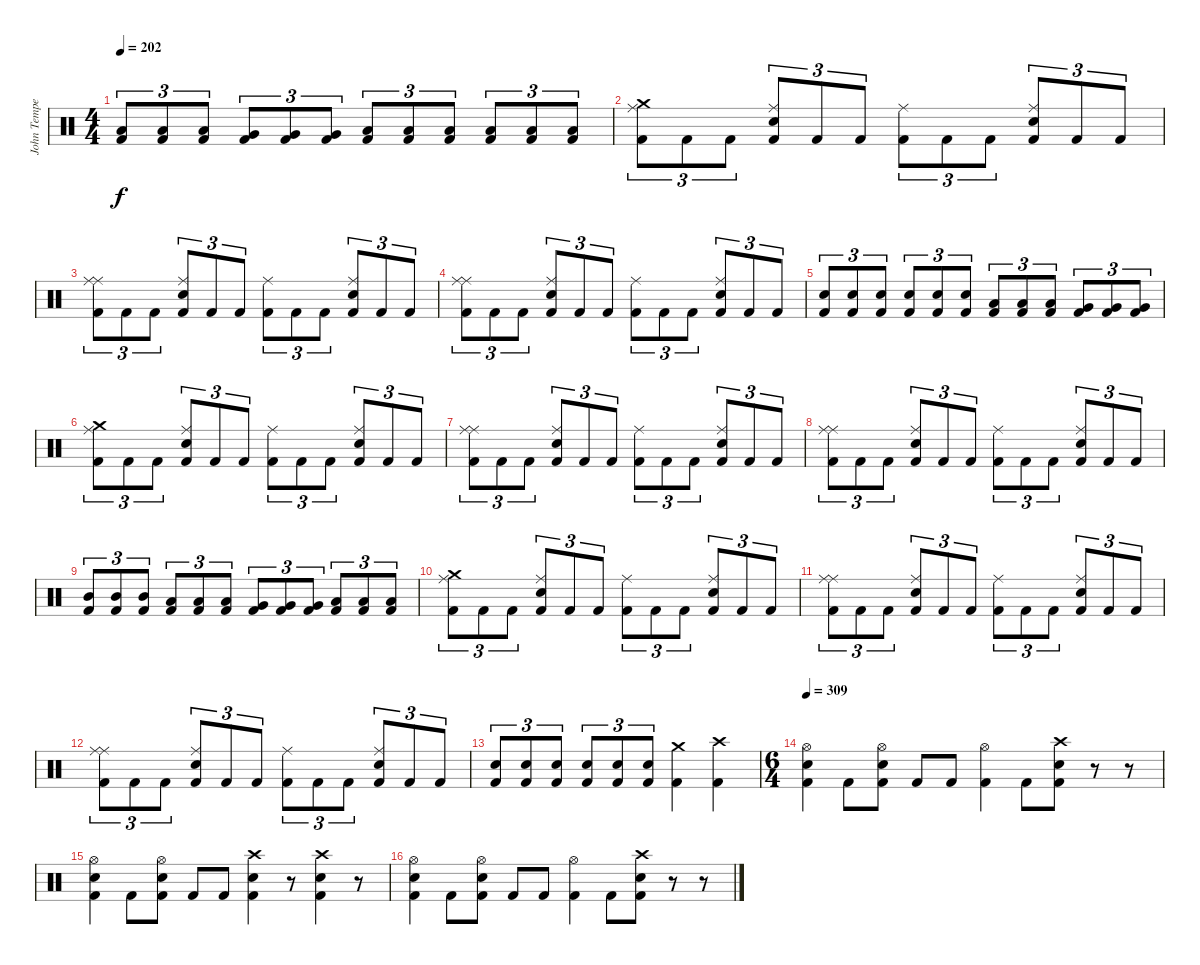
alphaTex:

\track ("John Tempesta" "John Tempe") {instrument percussion}
\staff {score}
\articulation defaults
\ts (4 4)
\tempo 202
\clef neutral
\ks c
("Kick (hit) 2" "Low Tom (hit)").8{tu (3 2) dy f} ("Kick (hit) 2" "Low Tom (hit)").8{tu (3 2)} ("Kick (hit) 2" "Low Tom (hit)").8{tu (3 2)} ("Kick (hit) 2" "Very Low Tom (hit)").8{tu (3 2)} ("Kick (hit) 2" "Very Low Tom (hit)").8{tu (3 2)} ("Kick (hit) 2" "Very Low Tom (hit)").8{tu (3 2)} ("Kick (hit) 2" "Low Floor Tom (hit)").8{tu (3 2)} ("Kick (hit) 2" "Low Floor Tom (hit)").8{tu (3 2)} ("Kick (hit) 2" "Low Floor Tom (hit)").8{tu (3 2)} ("Kick (hit) 2" "Low Floor Tom (hit)").8{tu (3 2)} ("Kick (hit) 2" "Low Floor Tom (hit)").8{tu (3 2)} ("Kick (hit) 2" "Low Floor Tom (hit)").8{tu (3 2)} |
("Kick (hit) 2" "Ride (middle)" "Crash medium (hit)").8{tu (3 2)} "Kick (hit) 2".8{tu (3 2)} "Kick (hit) 2".8{tu (3 2)} ("Kick (hit) 2" "Snare (hit) 2" "Ride (middle)").8{tu (3 2)} "Kick (hit) 2".8{tu (3 2)} "Kick (hit) 2".8{tu (3 2)} ("Kick (hit) 2" "Ride (middle)").8{tu (3 2)} "Kick (hit) 2".8{tu (3 2)} "Kick (hit) 2".8{tu (3 2)} ("Kick (hit) 2" "Snare (hit) 2" "Ride (middle)").8{tu (3 2)} "Kick (hit) 2".8{tu (3 2)} "Kick (hit) 2".8{tu (3 2)} |
("Kick (hit) 2" "Ride (middle)" "Ride (middle)").8{tu (3 2)} "Kick (hit) 2".8{tu (3 2)} "Kick (hit) 2".8{tu (3 2)} ("Kick (hit) 2" "Snare (hit) 2" "Ride (middle)").8{tu (3 2)} "Kick (hit) 2".8{tu (3 2)} "Kick (hit) 2".8{tu (3 2)} ("Kick (hit) 2" "Ride (middle)").8{tu (3 2)} "Kick (hit) 2".8{tu (3 2)} "Kick (hit) 2".8{tu (3 2)} ("Kick (hit) 2" "Snare (hit) 2" "Ride (middle)").8{tu (3 2)} "Kick (hit) 2".8{tu (3 2)} "Kick (hit) 2".8{tu (3 2)} |
("Kick (hit) 2" "Ride (middle)" "Ride (middle)").8{tu (3 2)} "Kick (hit) 2".8{tu (3 2)} "Kick (hit) 2".8{tu (3 2)} ("Kick (hit) 2" "Snare (hit) 2" "Ride (middle)").8{tu (3 2)} "Kick (hit) 2".8{tu (3 2)} "Kick (hit) 2".8{tu (3 2)} ("Kick (hit) 2" "Ride (middle)").8{tu (3 2)} "Kick (hit) 2".8{tu (3 2)} "Kick (hit) 2".8{tu (3 2)} ("Kick (hit) 2" "Snare (hit) 2" "Ride (middle)").8{tu (3 2)} "Kick (hit) 2".8{tu (3 2)} "Kick (hit) 2".8{tu (3 2)} |
("Kick (hit) 2" "Snare (hit) 2").8{tu (3 2)} ("Kick (hit) 2" "Snare (hit) 2").8{tu (3 2)} ("Kick (hit) 2" "Snare (hit) 2").8{tu (3 2)} ("Kick (hit) 2" "Snare (hit) 2").8{tu (3 2)} ("Kick (hit) 2" "Snare (hit) 2").8{tu (3 2)} ("Kick (hit) 2" "Snare (hit) 2").8{tu (3 2)} ("Kick (hit) 2" "Low Tom (hit)").8{tu (3 2)} ("Kick (hit) 2" "Low Tom (hit)").8{tu (3 2)} ("Kick (hit) 2" "Low Tom (hit)").8{tu (3 2)} ("Kick (hit) 2" "Very Low Tom (hit)").8{tu (3 2)} ("Kick (hit) 2" "Very Low Tom (hit)").8{tu (3 2)} ("Kick (hit) 2" "Very Low Tom (hit)").8{tu (3 2)} |
("Kick (hit) 2" "Ride (middle)" "Crash medium (hit)").8{tu (3 2)} "Kick (hit) 2".8{tu (3 2)} "Kick (hit) 2".8{tu (3 2)} ("Kick (hit) 2" "Snare (hit) 2" "Ride (middle)").8{tu (3 2)} "Kick (hit) 2".8{tu (3 2)} "Kick (hit) 2".8{tu (3 2)} ("Kick (hit) 2" "Ride (middle)").8{tu (3 2)} "Kick (hit) 2".8{tu (3 2)} "Kick (hit) 2".8{tu (3 2)} ("Kick (hit) 2" "Snare (hit) 2" "Ride (middle)").8{tu (3 2)} "Kick (hit) 2".8{tu (3 2)} "Kick (hit) 2".8{tu (3 2)} |
("Kick (hit) 2" "Ride (middle)" "Ride (middle)").8{tu (3 2)} "Kick (hit) 2".8{tu (3 2)} "Kick (hit) 2".8{tu (3 2)} ("Kick (hit) 2" "Snare (hit) 2" "Ride (middle)").8{tu (3 2)} "Kick (hit) 2".8{tu (3 2)} "Kick (hit) 2".8{tu (3 2)} ("Kick (hit) 2" "Ride (middle)").8{tu (3 2)} "Kick (hit) 2".8{tu (3 2)} "Kick (hit) 2".8{tu (3 2)} ("Kick (hit) 2" "Snare (hit) 2" "Ride (middle)").8{tu (3 2)} "Kick (hit) 2".8{tu (3 2)} "Kick (hit) 2".8{tu (3 2)} |
("Kick (hit) 2" "Ride (middle)" "Ride (middle)").8{tu (3 2)} "Kick (hit) 2".8{tu (3 2)} "Kick (hit) 2".8{tu (3 2)} ("Kick (hit) 2" "Snare (hit) 2" "Ride (middle)").8{tu (3 2)} "Kick (hit) 2".8{tu (3 2)} "Kick (hit) 2".8{tu (3 2)} ("Kick (hit) 2" "Ride (middle)").8{tu (3 2)} "Kick (hit) 2".8{tu (3 2)} "Kick (hit) 2".8{tu (3 2)} ("Kick (hit) 2" "Snare (hit) 2" "Ride (middle)").8{tu (3 2)} "Kick (hit) 2".8{tu (3 2)} "Kick (hit) 2".8{tu (3 2)} |
("Kick (hit) 2" "Mid Tom (hit)").8{tu (3 2)} ("Kick (hit) 2" "Mid Tom (hit)").8{tu (3 2)} ("Kick (hit) 2" "Mid Tom (hit)").8{tu (3 2)} ("Kick (hit) 2" "Low Tom (hit)").8{tu (3 2)} ("Kick (hit) 2" "Low Tom (hit)").8{tu (3 2)} ("Kick (hit) 2" "Low Tom (hit)").8{tu (3 2)} ("Kick (hit) 2" "Very Low Tom (hit)").8{tu (3 2)} ("Kick (hit) 2" "Very Low Tom (hit)").8{tu (3 2)} ("Kick (hit) 2" "Very Low Tom (hit)").8{tu (3 2)} ("Kick (hit) 2" "Low Floor Tom (hit)").8{tu (3 2)} ("Kick (hit) 2" "Low Floor Tom (hit)").8{tu (3 2)} ("Kick (hit) 2" "Low Floor Tom (hit)").8{tu (3 2)} |
("Kick (hit) 2" "Ride (middle)" "Crash medium (hit)").8{tu (3 2)} "Kick (hit) 2".8{tu (3 2)} "Kick (hit) 2".8{tu (3 2)} ("Kick (hit) 2" "Snare (hit) 2" "Ride (middle)").8{tu (3 2)} "Kick (hit) 2".8{tu (3 2)} "Kick (hit) 2".8{tu (3 2)} ("Kick (hit) 2" "Ride (middle)").8{tu (3 2)} "Kick (hit) 2".8{tu (3 2)} "Kick (hit) 2".8{tu (3 2)} ("Kick (hit) 2" "Snare (hit) 2" "Ride (middle)").8{tu (3 2)} "Kick (hit) 2".8{tu (3 2)} "Kick (hit) 2".8{tu (3 2)} |
("Kick (hit) 2" "Ride (middle)" "Ride (middle)").8{tu (3 2)} "Kick (hit) 2".8{tu (3 2)} "Kick (hit) 2".8{tu (3 2)} ("Kick (hit) 2" "Snare (hit) 2" "Ride (middle)").8{tu (3 2)} "Kick (hit) 2".8{tu (3 2)} "Kick (hit) 2".8{tu (3 2)} ("Kick (hit) 2" "Ride (middle)").8{tu (3 2)} "Kick (hit) 2".8{tu (3 2)} "Kick (hit) 2".8{tu (3 2)} ("Kick (hit) 2" "Snare (hit) 2" "Ride (middle)").8{tu (3 2)} "Kick (hit) 2".8{tu (3 2)} "Kick (hit) 2".8{tu (3 2)} |
("Kick (hit) 2" "Ride (middle)" "Ride (middle)").8{tu (3 2)} "Kick (hit) 2".8{tu (3 2)} "Kick (hit) 2".8{tu (3 2)} ("Kick (hit) 2" "Snare (hit) 2" "Ride (middle)").8{tu (3 2)} "Kick (hit) 2".8{tu (3 2)} "Kick (hit) 2".8{tu (3 2)} ("Kick (hit) 2" "Ride (middle)").8{tu (3 2)} "Kick (hit) 2".8{tu (3 2)} "Kick (hit) 2".8{tu (3 2)} ("Kick (hit) 2" "Snare (hit) 2" "Ride (middle)").8{tu (3 2)} "Kick (hit) 2".8{tu (3 2)} "Kick (hit) 2".8{tu (3 2)} |
("Kick (hit) 2" "Snare (hit) 2").8{tu (3 2)} ("Kick (hit) 2" "Snare (hit) 2").8{tu (3 2)} ("Kick (hit) 2" "Snare (hit) 2").8{tu (3 2)} ("Kick (hit) 2" "Snare (hit) 2").8{tu (3 2)} ("Kick (hit) 2" "Snare (hit) 2").8{tu (3 2)} ("Kick (hit) 2" "Snare (hit) 2").8{tu (3 2)} ("Kick (hit) 2" "Crash medium (hit)").4 ("Kick (hit) 2" "Crash high (hit)").4 |
\ts (6 4)
\tempo 309
("Kick (hit) 2" "Snare (hit) 2" "Hi-Hat (open)").4 "Kick (hit) 2".8 ("Kick (hit) 2" "Snare (hit) 2" "Hi-Hat (open)").8 "Kick (hit) 2".8 "Kick (hit) 2".8 ("Kick (hit) 2" "Hi-Hat (open)").4 "Kick (hit) 2".8 ("Kick (hit) 2" "Snare (hit) 2" "Crash high (hit)").8 r.8 r.8 |
("Kick (hit) 2" "Snare (hit) 2" "Hi-Hat (open)").4 "Kick (hit) 2".8 ("Kick (hit) 2" "Snare (hit) 2" "Hi-Hat (open)").8 "Kick (hit) 2".8 "Kick (hit) 2".8 ("Kick (hit) 2" "Snare (hit) 2" "Crash high (hit)").4 r.8 ("Kick (hit) 2" "Snare (hit) 2" "Crash high (hit)").4 r.8 |
("Kick (hit) 2" "Snare (hit) 2" "Hi-Hat (open)").4 "Kick (hit) 2".8 ("Kick (hit) 2" "Snare (hit) 2" "Hi-Hat (open)").8 "Kick (hit) 2".8 "Kick (hit) 2".8 ("Kick (hit) 2" "Hi-Hat (open)").4 "Kick (hit) 2".8 ("Kick (hit) 2" "Snare (hit) 2" "Crash high (hit)").8 r.8 r.8
